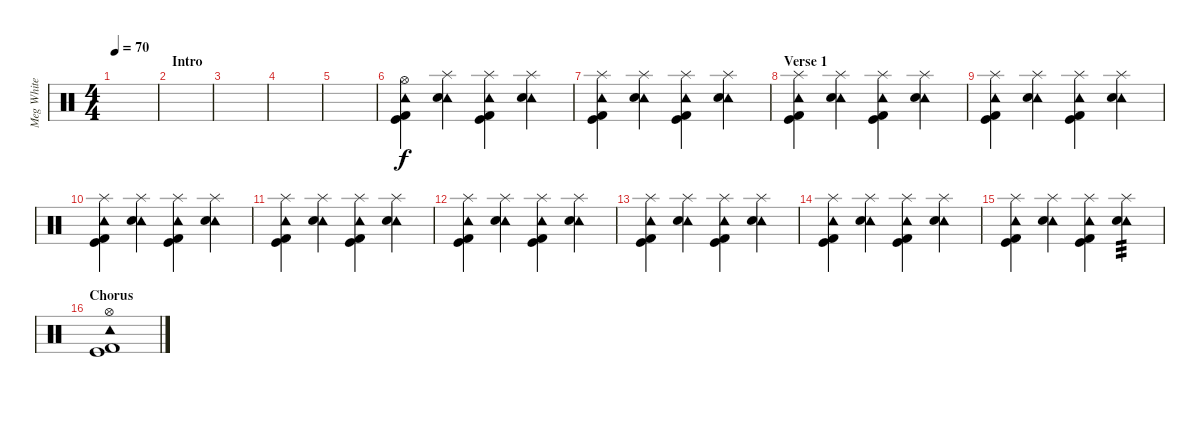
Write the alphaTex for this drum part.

\track ("Meg White (Drums)" "Meg White ") {instrument percussion}
\staff {score}
\articulation defaults
\ts (4 4)
\tempo 70
\clef neutral
\ks c
|
\section ("" "Intro")
|
|
|
|
("Tambourine (hit)" "Kick (hit)" "Kick (hit) 2" "Hi-Hat (open)").4 ("Tambourine (hit)" "Electric Snare (hit)" "Splash (hit)").4 ("Tambourine (hit)" "Kick (hit)" "Kick (hit) 2" "Splash (hit)").4 ("Tambourine (hit)" "Electric Snare (hit)" "Splash (hit)").4 |
("Tambourine (hit)" "Kick (hit)" "Kick (hit) 2" "Splash (hit)").4 ("Tambourine (hit)" "Electric Snare (hit)" "Splash (hit)").4 ("Tambourine (hit)" "Kick (hit)" "Kick (hit) 2" "Splash (hit)").4 ("Tambourine (hit)" "Electric Snare (hit)" "Splash (hit)").4 |
\section ("" "Verse 1")
("Tambourine (hit)" "Kick (hit)" "Kick (hit) 2" "Splash (hit)").4 ("Tambourine (hit)" "Electric Snare (hit)" "Splash (hit)").4 ("Tambourine (hit)" "Kick (hit)" "Kick (hit) 2" "Splash (hit)").4 ("Tambourine (hit)" "Electric Snare (hit)" "Splash (hit)").4 |
("Tambourine (hit)" "Kick (hit)" "Kick (hit) 2" "Splash (hit)").4 ("Tambourine (hit)" "Electric Snare (hit)" "Splash (hit)").4 ("Tambourine (hit)" "Kick (hit)" "Kick (hit) 2" "Splash (hit)").4 ("Tambourine (hit)" "Electric Snare (hit)" "Splash (hit)").4 |
("Tambourine (hit)" "Kick (hit)" "Kick (hit) 2" "Splash (hit)").4 ("Tambourine (hit)" "Electric Snare (hit)" "Splash (hit)").4 ("Tambourine (hit)" "Kick (hit)" "Kick (hit) 2" "Splash (hit)").4 ("Tambourine (hit)" "Electric Snare (hit)" "Splash (hit)").4 |
("Tambourine (hit)" "Kick (hit)" "Kick (hit) 2" "Splash (hit)").4 ("Tambourine (hit)" "Electric Snare (hit)" "Splash (hit)").4 ("Tambourine (hit)" "Kick (hit)" "Kick (hit) 2" "Splash (hit)").4 ("Tambourine (hit)" "Electric Snare (hit)" "Splash (hit)").4 |
("Tambourine (hit)" "Kick (hit)" "Kick (hit) 2" "Splash (hit)").4 ("Tambourine (hit)" "Electric Snare (hit)" "Splash (hit)").4 ("Tambourine (hit)" "Kick (hit)" "Kick (hit) 2" "Splash (hit)").4 ("Tambourine (hit)" "Electric Snare (hit)" "Splash (hit)").4 |
("Tambourine (hit)" "Kick (hit)" "Kick (hit) 2" "Splash (hit)").4 ("Tambourine (hit)" "Electric Snare (hit)" "Splash (hit)").4 ("Tambourine (hit)" "Kick (hit)" "Kick (hit) 2" "Splash (hit)").4 ("Tambourine (hit)" "Electric Snare (hit)" "Splash (hit)").4 |
("Tambourine (hit)" "Kick (hit)" "Kick (hit) 2" "Splash (hit)").4 ("Tambourine (hit)" "Electric Snare (hit)" "Splash (hit)").4 ("Tambourine (hit)" "Kick (hit)" "Kick (hit) 2" "Splash (hit)").4 ("Tambourine (hit)" "Electric Snare (hit)" "Splash (hit)").4 |
("Tambourine (hit)" "Kick (hit)" "Kick (hit) 2" "Splash (hit)").4 ("Tambourine (hit)" "Electric Snare (hit)" "Splash (hit)").4 ("Tambourine (hit)" "Kick (hit)" "Kick (hit) 2" "Splash (hit)").4 ("Tambourine (hit)" "Electric Snare (hit)" "Splash (hit)").4{tp 3} |
\section ("" "Chorus")
("Tambourine (hit)" "Kick (hit)" "Kick (hit) 2" "Hi-Hat (open)").1
